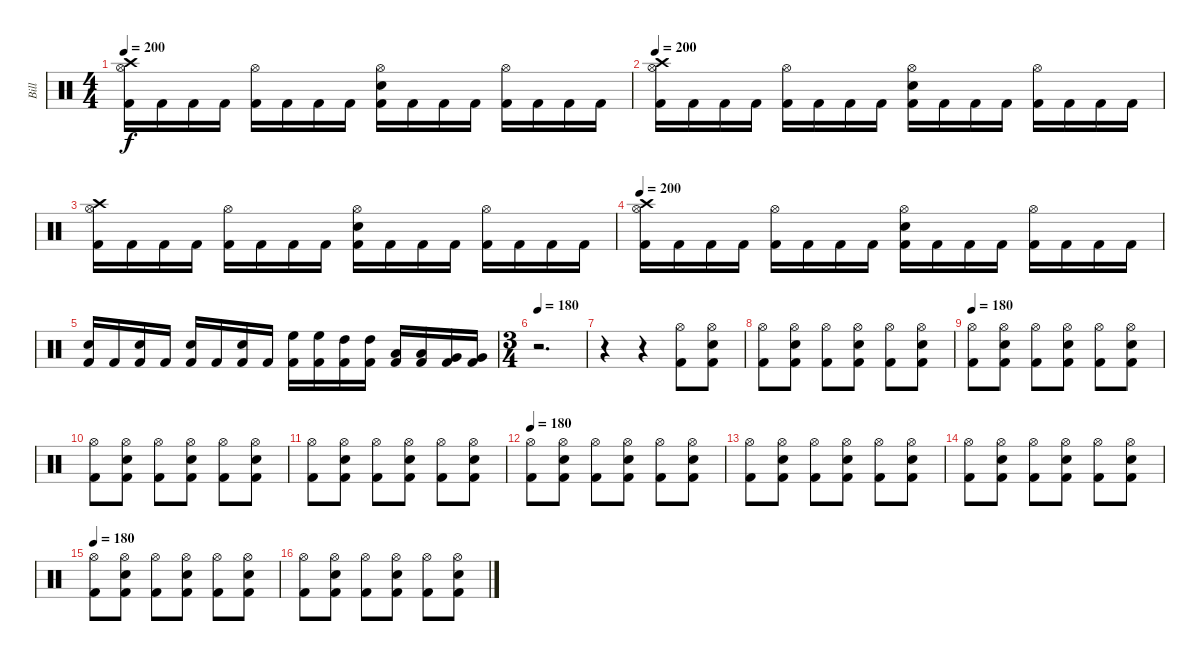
\track ("Bill" "Bill") {instrument percussion}
\staff {score}
\articulation defaults
\ts (4 4)
\tempo 200
\clef neutral
\ks c
("Hi-Hat (open)" "Crash high (hit)" "Kick (hit) 2").16{dy f} "Kick (hit) 2".16 "Kick (hit) 2".16 "Kick (hit) 2".16 ("Hi-Hat (open)" "Kick (hit) 2").16 "Kick (hit) 2".16 "Kick (hit) 2".16 "Kick (hit) 2".16 ("Hi-Hat (open)" "Snare (hit) 2" "Kick (hit) 2").16 "Kick (hit) 2".16 "Kick (hit) 2".16 "Kick (hit) 2".16 ("Hi-Hat (open)" "Kick (hit) 2").16 "Kick (hit) 2".16 "Kick (hit) 2".16 "Kick (hit) 2".16 |
\tempo 200
("Hi-Hat (open)" "Crash high (hit)" "Kick (hit) 2").16 "Kick (hit) 2".16 "Kick (hit) 2".16 "Kick (hit) 2".16 ("Hi-Hat (open)" "Kick (hit) 2").16 "Kick (hit) 2".16 "Kick (hit) 2".16 "Kick (hit) 2".16 ("Hi-Hat (open)" "Snare (hit) 2" "Kick (hit) 2").16 "Kick (hit) 2".16 "Kick (hit) 2".16 "Kick (hit) 2".16 ("Hi-Hat (open)" "Kick (hit) 2").16 "Kick (hit) 2".16 "Kick (hit) 2".16 "Kick (hit) 2".16 |
("Hi-Hat (open)" "Crash high (hit)" "Kick (hit) 2").16 "Kick (hit) 2".16 "Kick (hit) 2".16 "Kick (hit) 2".16 ("Hi-Hat (open)" "Kick (hit) 2").16 "Kick (hit) 2".16 "Kick (hit) 2".16 "Kick (hit) 2".16 ("Hi-Hat (open)" "Snare (hit) 2" "Kick (hit) 2").16 "Kick (hit) 2".16 "Kick (hit) 2".16 "Kick (hit) 2".16 ("Hi-Hat (open)" "Kick (hit) 2").16 "Kick (hit) 2".16 "Kick (hit) 2".16 "Kick (hit) 2".16 |
\tempo 200
("Hi-Hat (open)" "Crash high (hit)" "Kick (hit) 2").16 "Kick (hit) 2".16 "Kick (hit) 2".16 "Kick (hit) 2".16 ("Hi-Hat (open)" "Kick (hit) 2").16 "Kick (hit) 2".16 "Kick (hit) 2".16 "Kick (hit) 2".16 ("Hi-Hat (open)" "Snare (hit) 2" "Kick (hit) 2").16 "Kick (hit) 2".16 "Kick (hit) 2".16 "Kick (hit) 2".16 ("Hi-Hat (open)" "Kick (hit) 2").16 "Kick (hit) 2".16 "Kick (hit) 2".16 "Kick (hit) 2".16 |
("Snare (hit) 2" "Kick (hit) 2").16 "Kick (hit) 2".16 ("Snare (hit) 2" "Kick (hit) 2").16 "Kick (hit) 2".16 ("Snare (hit) 2" "Kick (hit) 2").16 "Kick (hit) 2".16 ("Snare (hit) 2" "Kick (hit) 2").16 "Kick (hit) 2".16 ("High Floor Tom (hit)" "Kick (hit) 2").16 ("High Floor Tom (hit)" "Kick (hit) 2").16 ("High Tom (hit)" "Kick (hit) 2").16 ("High Tom (hit)" "Kick (hit) 2").16 ("Low Tom (hit)" "Kick (hit) 2").16 ("Low Tom (hit)" "Kick (hit) 2").16 ("Very Low Tom (hit)" "Kick (hit) 2").16 ("Very Low Tom (hit)" "Kick (hit) 2").16 |
\ts (3 4)
\tempo 190
\tempo 180
r.2{d} |
r.4 r.4 ("Hi-Hat (open)" "Kick (hit) 2").8 ("Hi-Hat (open)" "Snare (hit) 2" "Kick (hit) 2").8 |
("Hi-Hat (open)" "Kick (hit) 2").8 ("Hi-Hat (open)" "Snare (hit) 2" "Kick (hit) 2").8 ("Hi-Hat (open)" "Kick (hit) 2").8 ("Hi-Hat (open)" "Snare (hit) 2" "Kick (hit) 2").8 ("Hi-Hat (open)" "Kick (hit) 2").8 ("Hi-Hat (open)" "Snare (hit) 2" "Kick (hit) 2").8 |
\tempo 190
\tempo 180
("Hi-Hat (open)" "Kick (hit) 2").8 ("Hi-Hat (open)" "Snare (hit) 2" "Kick (hit) 2").8 ("Hi-Hat (open)" "Kick (hit) 2").8 ("Hi-Hat (open)" "Snare (hit) 2" "Kick (hit) 2").8 ("Hi-Hat (open)" "Kick (hit) 2").8 ("Hi-Hat (open)" "Snare (hit) 2" "Kick (hit) 2").8 |
("Hi-Hat (open)" "Kick (hit) 2").8 ("Hi-Hat (open)" "Snare (hit) 2" "Kick (hit) 2").8 ("Hi-Hat (open)" "Kick (hit) 2").8 ("Hi-Hat (open)" "Snare (hit) 2" "Kick (hit) 2").8 ("Hi-Hat (open)" "Kick (hit) 2").8 ("Hi-Hat (open)" "Snare (hit) 2" "Kick (hit) 2").8 |
("Hi-Hat (open)" "Kick (hit) 2").8 ("Hi-Hat (open)" "Snare (hit) 2" "Kick (hit) 2").8 ("Hi-Hat (open)" "Kick (hit) 2").8 ("Hi-Hat (open)" "Snare (hit) 2" "Kick (hit) 2").8 ("Hi-Hat (open)" "Kick (hit) 2").8 ("Hi-Hat (open)" "Snare (hit) 2" "Kick (hit) 2").8 |
\tempo 190
\tempo 180
("Hi-Hat (open)" "Kick (hit) 2").8 ("Hi-Hat (open)" "Snare (hit) 2" "Kick (hit) 2").8 ("Hi-Hat (open)" "Kick (hit) 2").8 ("Hi-Hat (open)" "Snare (hit) 2" "Kick (hit) 2").8 ("Hi-Hat (open)" "Kick (hit) 2").8 ("Hi-Hat (open)" "Snare (hit) 2" "Kick (hit) 2").8 |
("Hi-Hat (open)" "Kick (hit) 2").8 ("Hi-Hat (open)" "Snare (hit) 2" "Kick (hit) 2").8 ("Hi-Hat (open)" "Kick (hit) 2").8 ("Hi-Hat (open)" "Snare (hit) 2" "Kick (hit) 2").8 ("Hi-Hat (open)" "Kick (hit) 2").8 ("Hi-Hat (open)" "Snare (hit) 2" "Kick (hit) 2").8 |
("Hi-Hat (open)" "Kick (hit) 2").8 ("Hi-Hat (open)" "Snare (hit) 2" "Kick (hit) 2").8 ("Hi-Hat (open)" "Kick (hit) 2").8 ("Hi-Hat (open)" "Snare (hit) 2" "Kick (hit) 2").8 ("Hi-Hat (open)" "Kick (hit) 2").8 ("Hi-Hat (open)" "Snare (hit) 2" "Kick (hit) 2").8 |
\tempo 190
\tempo 180
("Hi-Hat (open)" "Kick (hit) 2").8 ("Hi-Hat (open)" "Snare (hit) 2" "Kick (hit) 2").8 ("Hi-Hat (open)" "Kick (hit) 2").8 ("Hi-Hat (open)" "Snare (hit) 2" "Kick (hit) 2").8 ("Hi-Hat (open)" "Kick (hit) 2").8 ("Hi-Hat (open)" "Snare (hit) 2" "Kick (hit) 2").8 |
("Hi-Hat (open)" "Kick (hit) 2").8 ("Hi-Hat (open)" "Snare (hit) 2" "Kick (hit) 2").8 ("Hi-Hat (open)" "Kick (hit) 2").8 ("Hi-Hat (open)" "Snare (hit) 2" "Kick (hit) 2").8 ("Hi-Hat (open)" "Kick (hit) 2").8 ("Hi-Hat (open)" "Snare (hit) 2" "Kick (hit) 2").8
